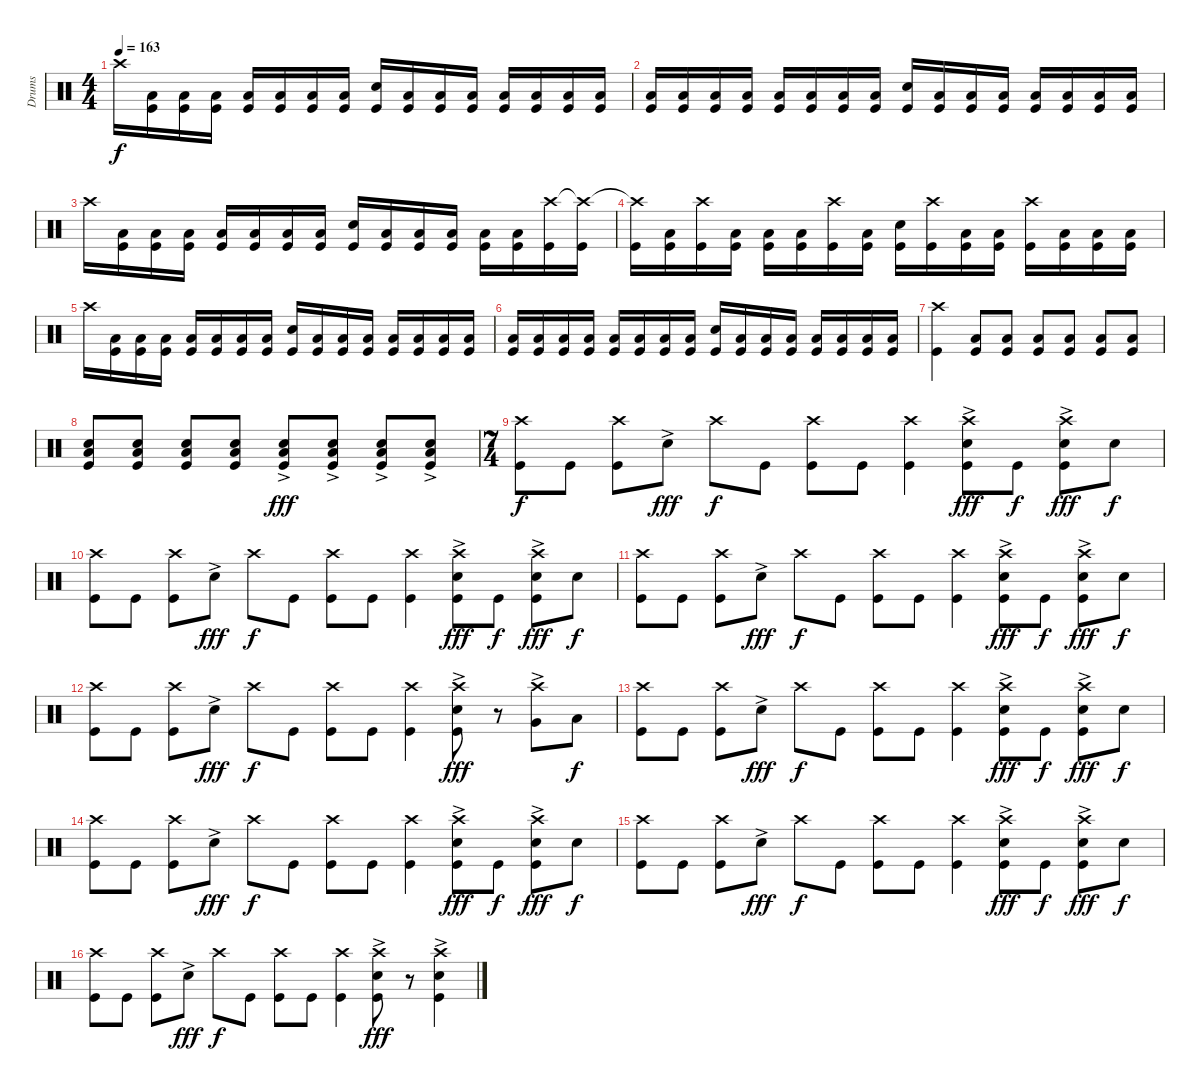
\track ("Drums" "Drums") {instrument percussion}
\staff {score}
\articulation defaults
\ts (4 4)
\tempo 163
\clef neutral
\ks c "Crash high (hit)".16{dy f}
("Low Tom (hit)" "Kick (hit)").16 ("Low Tom (hit)" "Kick (hit)").16 ("Low Tom (hit)" "Kick (hit)").16 ("Low Tom (hit)" "Kick (hit)").16 ("Low Tom (hit)" "Kick (hit)").16 ("Low Tom (hit)" "Kick (hit)").16 ("Low Tom (hit)" "Kick (hit)").16 ("Snare (hit) 2" "Kick (hit)").16 ("Low Tom (hit)" "Kick (hit)").16 ("Low Tom (hit)" "Kick (hit)").16 ("Low Tom (hit)" "Kick (hit)").16 ("Low Tom (hit)" "Kick (hit)").16 ("Low Tom (hit)" "Kick (hit)").16 ("Low Tom (hit)" "Kick (hit)").16 ("Low Tom (hit)" "Kick (hit)").16 |
("Low Tom (hit)" "Kick (hit)").16 ("Low Tom (hit)" "Kick (hit)").16 ("Low Tom (hit)" "Kick (hit)").16 ("Low Tom (hit)" "Kick (hit)").16 ("Low Tom (hit)" "Kick (hit)").16 ("Low Tom (hit)" "Kick (hit)").16 ("Low Tom (hit)" "Kick (hit)").16 ("Low Tom (hit)" "Kick (hit)").16 ("Snare (hit) 2" "Kick (hit)").16 ("Low Tom (hit)" "Kick (hit)").16 ("Low Tom (hit)" "Kick (hit)").16 ("Low Tom (hit)" "Kick (hit)").16 ("Low Tom (hit)" "Kick (hit)").16 ("Low Tom (hit)" "Kick (hit)").16 ("Low Tom (hit)" "Kick (hit)").16 ("Low Tom (hit)" "Kick (hit)").16 |
"Crash high (hit)".16 ("Low Tom (hit)" "Kick (hit)").16 ("Low Tom (hit)" "Kick (hit)").16 ("Low Tom (hit)" "Kick (hit)").16 ("Low Tom (hit)" "Kick (hit)").16 ("Low Tom (hit)" "Kick (hit)").16 ("Low Tom (hit)" "Kick (hit)").16 ("Low Tom (hit)" "Kick (hit)").16 ("Snare (hit) 2" "Kick (hit)").16 ("Low Tom (hit)" "Kick (hit)").16 ("Low Tom (hit)" "Kick (hit)").16 ("Low Tom (hit)" "Kick (hit)").16 ("Low Tom (hit)" "Kick (hit)").16 ("Low Tom (hit)" "Kick (hit)").16 ("Crash high (hit)" "Kick (hit)").16 ("Crash high (hit)"{t} "Kick (hit)").16 |
("Crash high (hit)"{t} "Kick (hit)").16 ("Low Tom (hit)" "Kick (hit)").16 ("Crash high (hit)" "Kick (hit)").16 ("Low Tom (hit)" "Kick (hit)").16 ("Low Tom (hit)" "Kick (hit)").16 ("Low Tom (hit)" "Kick (hit)").16 ("Crash high (hit)" "Kick (hit)").16 ("Low Tom (hit)" "Kick (hit)").16 ("Snare (hit) 2" "Kick (hit)").16 ("Crash high (hit)" "Kick (hit)").16 ("Low Tom (hit)" "Kick (hit)").16 ("Low Tom (hit)" "Kick (hit)").16 ("Crash high (hit)" "Kick (hit)").16 ("Low Tom (hit)" "Kick (hit)").16 ("Low Tom (hit)" "Kick (hit)").16 ("Low Tom (hit)" "Kick (hit)").16 |
"Crash high (hit)".16 ("Low Tom (hit)" "Kick (hit)").16 ("Low Tom (hit)" "Kick (hit)").16 ("Low Tom (hit)" "Kick (hit)").16 ("Low Tom (hit)" "Kick (hit)").16 ("Low Tom (hit)" "Kick (hit)").16 ("Low Tom (hit)" "Kick (hit)").16 ("Low Tom (hit)" "Kick (hit)").16 ("Snare (hit) 2" "Kick (hit)").16 ("Low Tom (hit)" "Kick (hit)").16 ("Low Tom (hit)" "Kick (hit)").16 ("Low Tom (hit)" "Kick (hit)").16 ("Low Tom (hit)" "Kick (hit)").16 ("Low Tom (hit)" "Kick (hit)").16 ("Low Tom (hit)" "Kick (hit)").16 ("Low Tom (hit)" "Kick (hit)").16 |
("Low Tom (hit)" "Kick (hit)").16 ("Low Tom (hit)" "Kick (hit)").16 ("Low Tom (hit)" "Kick (hit)").16 ("Low Tom (hit)" "Kick (hit)").16 ("Low Tom (hit)" "Kick (hit)").16 ("Low Tom (hit)" "Kick (hit)").16 ("Low Tom (hit)" "Kick (hit)").16 ("Low Tom (hit)" "Kick (hit)").16 ("Snare (hit) 2" "Kick (hit)").16 ("Low Tom (hit)" "Kick (hit)").16 ("Low Tom (hit)" "Kick (hit)").16 ("Low Tom (hit)" "Kick (hit)").16 ("Low Tom (hit)" "Kick (hit)").16 ("Low Tom (hit)" "Kick (hit)").16 ("Low Tom (hit)" "Kick (hit)").16 ("Low Tom (hit)" "Kick (hit)").16 |
("Crash high (hit)" "Kick (hit)").4 ("Low Floor Tom (hit)" "Kick (hit)").8 ("Low Floor Tom (hit)" "Kick (hit)").8 ("Low Floor Tom (hit)" "Kick (hit)").8 ("Low Floor Tom (hit)" "Kick (hit)").8 ("Low Floor Tom (hit)" "Kick (hit)").8 ("Low Floor Tom (hit)" "Kick (hit)").8 |
("Snare (hit) 2" "Low Floor Tom (hit)" "Kick (hit)").8 ("Snare (hit) 2" "Low Floor Tom (hit)" "Kick (hit)").8 ("Snare (hit) 2" "Low Floor Tom (hit)" "Kick (hit)").8 ("Snare (hit) 2" "Low Floor Tom (hit)" "Kick (hit)").8 ("Snare (hit) 2"{ac} "Low Floor Tom (hit)"{ac} "Kick (hit)").8{dy fff} ("Snare (hit) 2"{ac} "Low Floor Tom (hit)"{ac} "Kick (hit)").8 ("Snare (hit) 2"{ac} "Low Floor Tom (hit)"{ac} "Kick (hit)").8 ("Snare (hit) 2"{ac} "Low Floor Tom (hit)"{ac} "Kick (hit)").8 |
\ts (7 4)
("Crash high (hit)" "Kick (hit)").8{dy f} "Kick (hit)".8 ("Crash high (hit)" "Kick (hit)").8 "Snare (hit) 2"{ac}.8{dy fff} "Crash high (hit)".8{dy f} "Kick (hit)".8 ("Crash high (hit)" "Kick (hit)").8 "Kick (hit)".8 ("Crash high (hit)" "Kick (hit)").4 ("Crash high (hit)" "Snare (hit) 2"{ac} "Kick (hit)").8{dy fff} "Kick (hit)".8{dy f} ("Crash high (hit)" "Snare (hit) 2"{ac} "Kick (hit)").8{dy fff} "Snare (hit) 2".8{dy f} |
("Crash high (hit)" "Kick (hit)").8 "Kick (hit)".8 ("Crash high (hit)" "Kick (hit)").8 "Snare (hit) 2"{ac}.8{dy fff} "Crash high (hit)".8{dy f} "Kick (hit)".8 ("Crash high (hit)" "Kick (hit)").8 "Kick (hit)".8 ("Crash high (hit)" "Kick (hit)").4 ("Crash high (hit)" "Snare (hit) 2"{ac} "Kick (hit)").8{dy fff} "Kick (hit)".8{dy f} ("Crash high (hit)" "Snare (hit) 2"{ac} "Kick (hit)").8{dy fff} "Snare (hit) 2".8{dy f} |
("Crash high (hit)" "Kick (hit)").8 "Kick (hit)".8 ("Crash high (hit)" "Kick (hit)").8 "Snare (hit) 2"{ac}.8{dy fff} "Crash high (hit)".8{dy f} "Kick (hit)".8 ("Crash high (hit)" "Kick (hit)").8 "Kick (hit)".8 ("Crash high (hit)" "Kick (hit)").4 ("Crash high (hit)" "Snare (hit) 2"{ac} "Kick (hit)").8{dy fff} "Kick (hit)".8{dy f} ("Crash high (hit)" "Snare (hit) 2"{ac} "Kick (hit)").8{dy fff} "Snare (hit) 2".8{dy f} |
("Crash high (hit)" "Kick (hit)").8 "Kick (hit)".8 ("Crash high (hit)" "Kick (hit)").8 "Snare (hit) 2"{ac}.8{dy fff} "Crash high (hit)".8{dy f} "Kick (hit)".8 ("Crash high (hit)" "Kick (hit)").8 "Kick (hit)".8 ("Crash high (hit)" "Kick (hit)").4 ("Crash high (hit)" "Snare (hit) 2"{ac} "Kick (hit)").8{dy fff} r.8 ("Crash high (hit)" "Very Low Tom (hit)"{ac}).8 "Low Floor Tom (hit)".8{dy f} |
("Crash high (hit)" "Kick (hit)").8 "Kick (hit)".8 ("Crash high (hit)" "Kick (hit)").8 "Snare (hit) 2"{ac}.8{dy fff} "Crash high (hit)".8{dy f} "Kick (hit)".8 ("Crash high (hit)" "Kick (hit)").8 "Kick (hit)".8 ("Crash high (hit)" "Kick (hit)").4 ("Crash high (hit)" "Snare (hit) 2"{ac} "Kick (hit)").8{dy fff} "Kick (hit)".8{dy f} ("Crash high (hit)" "Snare (hit) 2"{ac} "Kick (hit)").8{dy fff} "Snare (hit) 2".8{dy f} |
("Crash high (hit)" "Kick (hit)").8 "Kick (hit)".8 ("Crash high (hit)" "Kick (hit)").8 "Snare (hit) 2"{ac}.8{dy fff} "Crash high (hit)".8{dy f} "Kick (hit)".8 ("Crash high (hit)" "Kick (hit)").8 "Kick (hit)".8 ("Crash high (hit)" "Kick (hit)").4 ("Crash high (hit)" "Snare (hit) 2"{ac} "Kick (hit)").8{dy fff} "Kick (hit)".8{dy f} ("Crash high (hit)" "Snare (hit) 2"{ac} "Kick (hit)").8{dy fff} "Snare (hit) 2".8{dy f} |
("Crash high (hit)" "Kick (hit)").8 "Kick (hit)".8 ("Crash high (hit)" "Kick (hit)").8 "Snare (hit) 2"{ac}.8{dy fff} "Crash high (hit)".8{dy f} "Kick (hit)".8 ("Crash high (hit)" "Kick (hit)").8 "Kick (hit)".8 ("Crash high (hit)" "Kick (hit)").4 ("Crash high (hit)" "Snare (hit) 2"{ac} "Kick (hit)").8{dy fff} "Kick (hit)".8{dy f} ("Crash high (hit)" "Snare (hit) 2"{ac} "Kick (hit)").8{dy fff} "Snare (hit) 2".8{dy f} |
("Crash high (hit)" "Kick (hit)").8 "Kick (hit)".8 ("Crash high (hit)" "Kick (hit)").8 "Snare (hit) 2"{ac}.8{dy fff} "Crash high (hit)".8{dy f} "Kick (hit)".8 ("Crash high (hit)" "Kick (hit)").8 "Kick (hit)".8 ("Crash high (hit)" "Kick (hit)").4 ("Crash high (hit)" "Snare (hit) 2"{ac} "Kick (hit)").8{dy fff} r.8 ("Crash high (hit)" "Snare (hit) 2"{ac} "Kick (hit)").4
